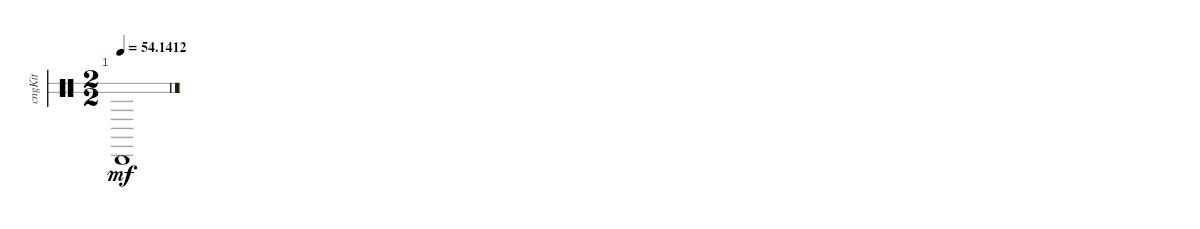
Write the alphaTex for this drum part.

\bracketExtendMode groupsimilarinstruments
\multiTrackTrackNamePolicy hidden
\otherSystemsTrackNameOrientation horizontal
\track ("Congas" "cngKit") {instrument percussion}
\staff {score 2}
\articulation defaults
\ts (2 2)
\tempo
54.1412
\accidentals auto
\clef neutral
\ottava regular
\simile none
\ks c "Conga low (hit)".1{dy mf beam Up}
